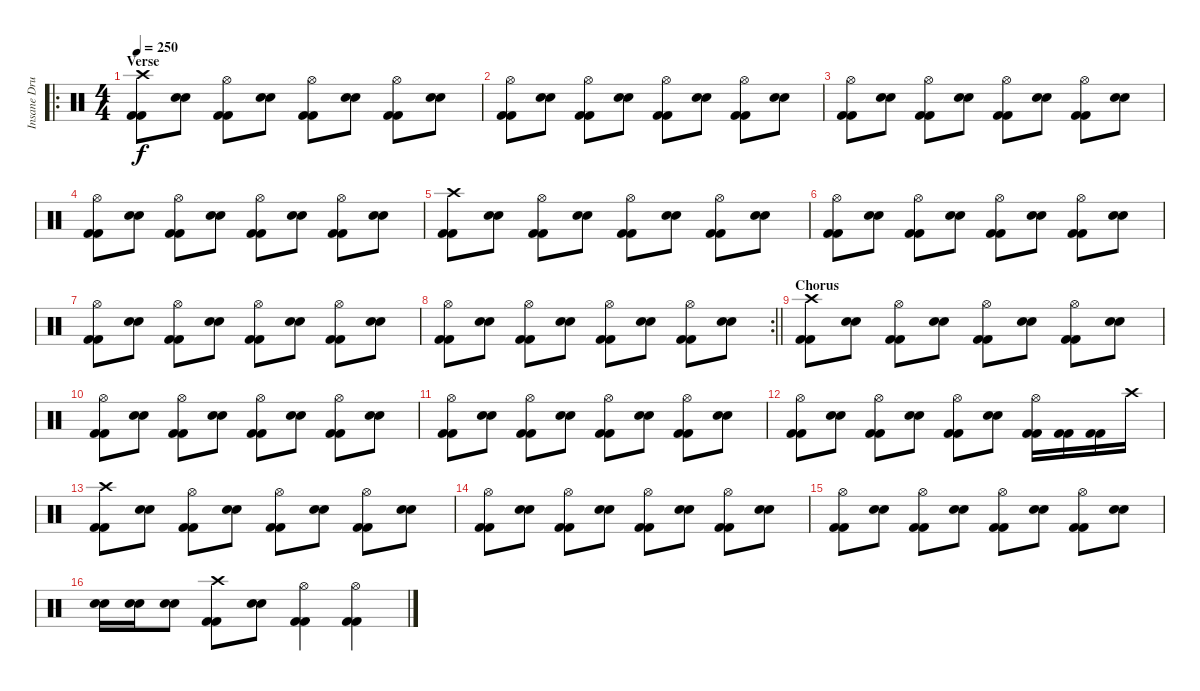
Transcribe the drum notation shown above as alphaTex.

\track ("Insane Drums" "Insane Dru") {instrument percussion}
\staff {score}
\articulation defaults
\ro
\ts (4 4)
\section ("" "Verse")
\tempo 250
\clef neutral
\ks c
("Kick (hit) 2" "Kick (hit) 2" "Crash high (hit)").8{dy f} ("Electric Snare (hit)" "Electric Snare (hit)").8 ("Kick (hit) 2" "Kick (hit) 2" "Hi-Hat (open)").8 ("Electric Snare (hit)" "Electric Snare (hit)").8 ("Kick (hit) 2" "Kick (hit) 2" "Hi-Hat (open)").8 ("Electric Snare (hit)" "Electric Snare (hit)").8 ("Kick (hit) 2" "Kick (hit) 2" "Hi-Hat (open)").8 ("Electric Snare (hit)" "Electric Snare (hit)").8 |
("Kick (hit) 2" "Kick (hit) 2" "Hi-Hat (open)").8 ("Electric Snare (hit)" "Electric Snare (hit)").8 ("Kick (hit) 2" "Kick (hit) 2" "Hi-Hat (open)").8 ("Electric Snare (hit)" "Electric Snare (hit)").8 ("Kick (hit) 2" "Kick (hit) 2" "Hi-Hat (open)").8 ("Electric Snare (hit)" "Electric Snare (hit)").8 ("Kick (hit) 2" "Kick (hit) 2" "Hi-Hat (open)").8 ("Electric Snare (hit)" "Electric Snare (hit)").8 |
("Kick (hit) 2" "Kick (hit) 2" "Hi-Hat (open)").8 ("Electric Snare (hit)" "Electric Snare (hit)").8 ("Kick (hit) 2" "Kick (hit) 2" "Hi-Hat (open)").8 ("Electric Snare (hit)" "Electric Snare (hit)").8 ("Kick (hit) 2" "Kick (hit) 2" "Hi-Hat (open)").8 ("Electric Snare (hit)" "Electric Snare (hit)").8 ("Kick (hit) 2" "Kick (hit) 2" "Hi-Hat (open)").8 ("Electric Snare (hit)" "Electric Snare (hit)").8 |
("Kick (hit) 2" "Kick (hit) 2" "Hi-Hat (open)").8 ("Electric Snare (hit)" "Electric Snare (hit)").8 ("Kick (hit) 2" "Kick (hit) 2" "Hi-Hat (open)").8 ("Electric Snare (hit)" "Electric Snare (hit)").8 ("Kick (hit) 2" "Kick (hit) 2" "Hi-Hat (open)").8 ("Electric Snare (hit)" "Electric Snare (hit)").8 ("Kick (hit) 2" "Kick (hit) 2" "Hi-Hat (open)").8 ("Electric Snare (hit)" "Electric Snare (hit)").8 |
("Kick (hit) 2" "Kick (hit) 2" "Crash high (hit)").8 ("Electric Snare (hit)" "Electric Snare (hit)").8 ("Kick (hit) 2" "Kick (hit) 2" "Hi-Hat (open)").8 ("Electric Snare (hit)" "Electric Snare (hit)").8 ("Kick (hit) 2" "Kick (hit) 2" "Hi-Hat (open)").8 ("Electric Snare (hit)" "Electric Snare (hit)").8 ("Kick (hit) 2" "Kick (hit) 2" "Hi-Hat (open)").8 ("Electric Snare (hit)" "Electric Snare (hit)").8 |
("Kick (hit) 2" "Kick (hit) 2" "Hi-Hat (open)").8 ("Electric Snare (hit)" "Electric Snare (hit)").8 ("Kick (hit) 2" "Kick (hit) 2" "Hi-Hat (open)").8 ("Electric Snare (hit)" "Electric Snare (hit)").8 ("Kick (hit) 2" "Kick (hit) 2" "Hi-Hat (open)").8 ("Electric Snare (hit)" "Electric Snare (hit)").8 ("Kick (hit) 2" "Kick (hit) 2" "Hi-Hat (open)").8 ("Electric Snare (hit)" "Electric Snare (hit)").8 |
("Kick (hit) 2" "Kick (hit) 2" "Hi-Hat (open)").8 ("Electric Snare (hit)" "Electric Snare (hit)").8 ("Kick (hit) 2" "Kick (hit) 2" "Hi-Hat (open)").8 ("Electric Snare (hit)" "Electric Snare (hit)").8 ("Kick (hit) 2" "Kick (hit) 2" "Hi-Hat (open)").8 ("Electric Snare (hit)" "Electric Snare (hit)").8 ("Kick (hit) 2" "Kick (hit) 2" "Hi-Hat (open)").8 ("Electric Snare (hit)" "Electric Snare (hit)").8 |
\rc 2
\barLineRight lightlight
("Kick (hit) 2" "Kick (hit) 2" "Hi-Hat (open)").8 ("Electric Snare (hit)" "Electric Snare (hit)").8 ("Kick (hit) 2" "Kick (hit) 2" "Hi-Hat (open)").8 ("Electric Snare (hit)" "Electric Snare (hit)").8 ("Kick (hit) 2" "Kick (hit) 2" "Hi-Hat (open)").8 ("Electric Snare (hit)" "Electric Snare (hit)").8 ("Kick (hit) 2" "Kick (hit) 2" "Hi-Hat (open)").8 ("Electric Snare (hit)" "Electric Snare (hit)").8 |
\section ("" "Chorus")
("Kick (hit) 2" "Kick (hit) 2" "Crash high (hit)").8 ("Electric Snare (hit)" "Electric Snare (hit)").8 ("Kick (hit) 2" "Kick (hit) 2" "Hi-Hat (open)").8 ("Electric Snare (hit)" "Electric Snare (hit)").8 ("Kick (hit) 2" "Kick (hit) 2" "Hi-Hat (open)").8 ("Electric Snare (hit)" "Electric Snare (hit)").8 ("Kick (hit) 2" "Kick (hit) 2" "Hi-Hat (open)").8 ("Electric Snare (hit)" "Electric Snare (hit)").8 |
("Kick (hit) 2" "Kick (hit) 2" "Hi-Hat (open)").8 ("Electric Snare (hit)" "Electric Snare (hit)").8 ("Kick (hit) 2" "Kick (hit) 2" "Hi-Hat (open)").8 ("Electric Snare (hit)" "Electric Snare (hit)").8 ("Kick (hit) 2" "Kick (hit) 2" "Hi-Hat (open)").8 ("Electric Snare (hit)" "Electric Snare (hit)").8 ("Kick (hit) 2" "Kick (hit) 2" "Hi-Hat (open)").8 ("Electric Snare (hit)" "Electric Snare (hit)").8 |
("Kick (hit) 2" "Kick (hit) 2" "Hi-Hat (open)").8 ("Electric Snare (hit)" "Electric Snare (hit)").8 ("Kick (hit) 2" "Kick (hit) 2" "Hi-Hat (open)").8 ("Electric Snare (hit)" "Electric Snare (hit)").8 ("Kick (hit) 2" "Kick (hit) 2" "Hi-Hat (open)").8 ("Electric Snare (hit)" "Electric Snare (hit)").8 ("Kick (hit) 2" "Kick (hit) 2" "Hi-Hat (open)").8 ("Electric Snare (hit)" "Electric Snare (hit)").8 |
("Kick (hit) 2" "Kick (hit) 2" "Hi-Hat (open)").8 ("Electric Snare (hit)" "Electric Snare (hit)").8 ("Kick (hit) 2" "Kick (hit) 2" "Hi-Hat (open)").8 ("Electric Snare (hit)" "Electric Snare (hit)").8 ("Kick (hit) 2" "Kick (hit) 2" "Hi-Hat (open)").8 ("Electric Snare (hit)" "Electric Snare (hit)").8 ("Kick (hit) 2" "Kick (hit) 2" "Hi-Hat (open)").16 ("Kick (hit) 2" "Kick (hit) 2").16 ("Kick (hit) 2" "Kick (hit) 2").16 "Crash high (hit)".16 |
("Kick (hit) 2" "Kick (hit) 2" "Crash high (hit)").8 ("Electric Snare (hit)" "Electric Snare (hit)").8 ("Kick (hit) 2" "Kick (hit) 2" "Hi-Hat (open)").8 ("Electric Snare (hit)" "Electric Snare (hit)").8 ("Kick (hit) 2" "Kick (hit) 2" "Hi-Hat (open)").8 ("Electric Snare (hit)" "Electric Snare (hit)").8 ("Kick (hit) 2" "Kick (hit) 2" "Hi-Hat (open)").8 ("Electric Snare (hit)" "Electric Snare (hit)").8 |
("Kick (hit) 2" "Kick (hit) 2" "Hi-Hat (open)").8 ("Electric Snare (hit)" "Electric Snare (hit)").8 ("Kick (hit) 2" "Kick (hit) 2" "Hi-Hat (open)").8 ("Electric Snare (hit)" "Electric Snare (hit)").8 ("Kick (hit) 2" "Kick (hit) 2" "Hi-Hat (open)").8 ("Electric Snare (hit)" "Electric Snare (hit)").8 ("Kick (hit) 2" "Kick (hit) 2" "Hi-Hat (open)").8 ("Electric Snare (hit)" "Electric Snare (hit)").8 |
("Kick (hit) 2" "Kick (hit) 2" "Hi-Hat (open)").8 ("Electric Snare (hit)" "Electric Snare (hit)").8 ("Kick (hit) 2" "Kick (hit) 2" "Hi-Hat (open)").8 ("Electric Snare (hit)" "Electric Snare (hit)").8 ("Kick (hit) 2" "Kick (hit) 2" "Hi-Hat (open)").8 ("Electric Snare (hit)" "Electric Snare (hit)").8 ("Kick (hit) 2" "Kick (hit) 2" "Hi-Hat (open)").8 ("Electric Snare (hit)" "Electric Snare (hit)").8 |
("Electric Snare (hit)" "Electric Snare (hit)").16 ("Electric Snare (hit)" "Electric Snare (hit)").16 ("Electric Snare (hit)" "Electric Snare (hit)").8 ("Kick (hit) 2" "Kick (hit) 2" "Crash high (hit)").8 ("Electric Snare (hit)" "Electric Snare (hit)").8 ("Kick (hit) 2" "Kick (hit) 2" "Hi-Hat (open)").4 ("Kick (hit) 2" "Kick (hit) 2" "Hi-Hat (open)").4
